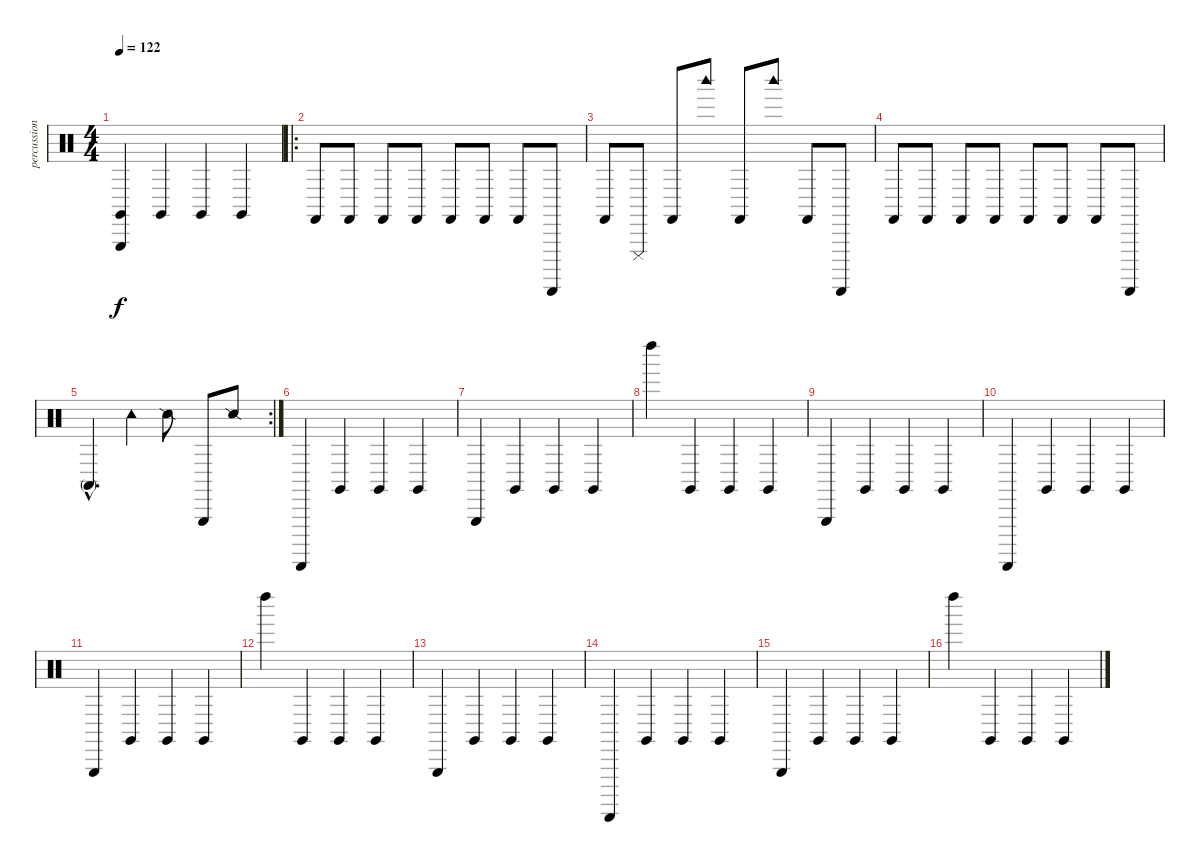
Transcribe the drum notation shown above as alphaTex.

\track ("percussion" "percussion") {instrument percussion}
\staff {score}
\articulation defaults
\ts (4 4)
\tempo 122
\clef neutral
\ks c
("Triangle (hit)" "Claves (hit)").4{dy f} "Claves (hit)".4 "Claves (hit)".4 "Claves (hit)".4 |
\ro "Castanets (hit)".8 "Castanets (hit)".8 "Castanets (hit)".8 "Castanets (hit)".8 "Castanets (hit)".8 "Castanets (hit)".8 "Castanets (hit)".8 "Guiro (scrap-return)".8
|
"Castanets (hit)".8 "Cuica (mute)".8 "Castanets (hit)".8 "Woodblock high (hit)".8 "Castanets (hit)".8 "Woodblock high (hit)".8 "Castanets (hit)".8 "Guiro (scrap-return)".8 |
"Castanets (hit)".8 "Castanets (hit)".8 "Castanets (hit)".8 "Castanets (hit)".8 "Castanets (hit)".8 "Castanets (hit)".8 "Castanets (hit)".8 "Guiro (scrap-return)".8 |
\rc 2 "Conga high (mute)"{hac}.4{d} "Tambourine (hit)".4 "Snare (side stick) 2".8 "Triangle (hit)".8 "Snare (side stick) 2".8
|
"Guiro (scrap-return)".4 "Claves (hit)".4 "Claves (hit)".4 "Claves (hit)".4 |
"Triangle (hit)".4 "Claves (hit)".4 "Claves (hit)".4 "Claves (hit)".4 |
"Left Maraca (hit)".4 "Claves (hit)".4 "Claves (hit)".4 "Claves (hit)".4 |
"Triangle (hit)".4 "Claves (hit)".4 "Claves (hit)".4 "Claves (hit)".4 |
"Guiro (scrap-return)".4 "Claves (hit)".4 "Claves (hit)".4 "Claves (hit)".4 |
"Triangle (hit)".4 "Claves (hit)".4 "Claves (hit)".4 "Claves (hit)".4 |
"Left Maraca (hit)".4 "Claves (hit)".4 "Claves (hit)".4 "Claves (hit)".4 |
"Triangle (hit)".4 "Claves (hit)".4 "Claves (hit)".4 "Claves (hit)".4 |
"Guiro (scrap-return)".4 "Claves (hit)".4 "Claves (hit)".4 "Claves (hit)".4 |
"Triangle (hit)".4 "Claves (hit)".4 "Claves (hit)".4 "Claves (hit)".4 |
"Left Maraca (hit)".4 "Claves (hit)".4 "Claves (hit)".4 "Claves (hit)".4
